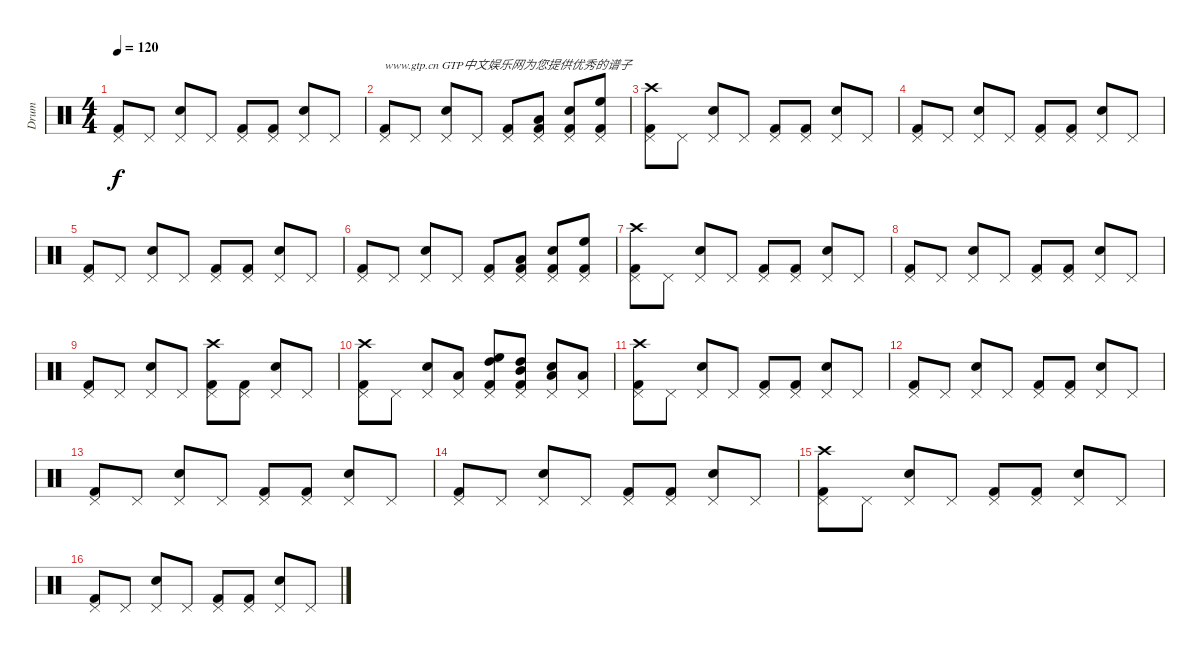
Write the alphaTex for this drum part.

\track ("Drum" "Drum") {instrument percussion}
\staff {score}
\articulation defaults
\ts (4 4)
\tempo 120
\clef neutral
\ks c
("Pedal Hi-Hat (hit)" "Kick (hit) 2").8{dy f} "Pedal Hi-Hat (hit)".8 ("Snare (hit) 2" "Pedal Hi-Hat (hit)").8 "Pedal Hi-Hat (hit)".8 ("Pedal Hi-Hat (hit)" "Kick (hit) 2").8 ("Pedal Hi-Hat (hit)" "Kick (hit) 2").8 ("Snare (hit) 2" "Pedal Hi-Hat (hit)").8 "Pedal Hi-Hat (hit)".8 |
("Pedal Hi-Hat (hit)" "Kick (hit) 2").8{txt "www.gtp.cn GTP中文娱乐网为您提供优秀的谱子"} "Pedal Hi-Hat (hit)".8 ("Snare (hit) 2" "Pedal Hi-Hat (hit)").8 "Pedal Hi-Hat (hit)".8 ("Pedal Hi-Hat (hit)" "Kick (hit) 2").8 ("Pedal Hi-Hat (hit)" "Kick (hit) 2" "Low Tom (hit)").8 ("Snare (hit) 2" "Pedal Hi-Hat (hit)" "Kick (hit) 2").8 ("Pedal Hi-Hat (hit)" "Kick (hit) 2" "High Floor Tom (hit)").8 |
("Crash high (hit)" "Pedal Hi-Hat (hit)" "Kick (hit) 2").8 "Pedal Hi-Hat (hit)".8 ("Snare (hit) 2" "Pedal Hi-Hat (hit)").8 "Pedal Hi-Hat (hit)".8 ("Pedal Hi-Hat (hit)" "Kick (hit) 2").8 ("Pedal Hi-Hat (hit)" "Kick (hit) 2").8 ("Snare (hit) 2" "Pedal Hi-Hat (hit)").8 "Pedal Hi-Hat (hit)".8 |
("Pedal Hi-Hat (hit)" "Kick (hit) 2").8 "Pedal Hi-Hat (hit)".8 ("Snare (hit) 2" "Pedal Hi-Hat (hit)").8 "Pedal Hi-Hat (hit)".8 ("Pedal Hi-Hat (hit)" "Kick (hit) 2").8 ("Pedal Hi-Hat (hit)" "Kick (hit) 2").8 ("Snare (hit) 2" "Pedal Hi-Hat (hit)").8 "Pedal Hi-Hat (hit)".8 |
("Pedal Hi-Hat (hit)" "Kick (hit) 2").8 "Pedal Hi-Hat (hit)".8 ("Snare (hit) 2" "Pedal Hi-Hat (hit)").8 "Pedal Hi-Hat (hit)".8 ("Pedal Hi-Hat (hit)" "Kick (hit) 2").8 ("Pedal Hi-Hat (hit)" "Kick (hit) 2").8 ("Snare (hit) 2" "Pedal Hi-Hat (hit)").8 "Pedal Hi-Hat (hit)".8 |
("Pedal Hi-Hat (hit)" "Kick (hit) 2").8 "Pedal Hi-Hat (hit)".8 ("Snare (hit) 2" "Pedal Hi-Hat (hit)").8 "Pedal Hi-Hat (hit)".8 ("Pedal Hi-Hat (hit)" "Kick (hit) 2").8 ("Pedal Hi-Hat (hit)" "Kick (hit) 2" "Low Tom (hit)").8 ("Snare (hit) 2" "Pedal Hi-Hat (hit)" "Kick (hit) 2").8 ("Pedal Hi-Hat (hit)" "Kick (hit) 2" "High Floor Tom (hit)").8 |
("Crash high (hit)" "Pedal Hi-Hat (hit)" "Kick (hit) 2").8 "Pedal Hi-Hat (hit)".8 ("Snare (hit) 2" "Pedal Hi-Hat (hit)").8 "Pedal Hi-Hat (hit)".8 ("Pedal Hi-Hat (hit)" "Kick (hit) 2").8 ("Pedal Hi-Hat (hit)" "Kick (hit) 2").8 ("Snare (hit) 2" "Pedal Hi-Hat (hit)").8 "Pedal Hi-Hat (hit)".8 |
("Pedal Hi-Hat (hit)" "Kick (hit) 2").8 "Pedal Hi-Hat (hit)".8 ("Snare (hit) 2" "Pedal Hi-Hat (hit)").8 "Pedal Hi-Hat (hit)".8 ("Pedal Hi-Hat (hit)" "Kick (hit) 2").8 ("Pedal Hi-Hat (hit)" "Kick (hit) 2").8 ("Snare (hit) 2" "Pedal Hi-Hat (hit)").8 "Pedal Hi-Hat (hit)".8 |
("Pedal Hi-Hat (hit)" "Kick (hit) 2").8 "Pedal Hi-Hat (hit)".8 ("Snare (hit) 2" "Pedal Hi-Hat (hit)").8 "Pedal Hi-Hat (hit)".8 ("Crash high (hit)" "Pedal Hi-Hat (hit)" "Kick (hit) 2").8 ("Pedal Hi-Hat (hit)" "Kick (hit) 2").8 ("Snare (hit) 2" "Pedal Hi-Hat (hit)").8 "Pedal Hi-Hat (hit)".8 |
("Crash high (hit)" "Pedal Hi-Hat (hit)" "Kick (hit) 2").8 "Pedal Hi-Hat (hit)".8 ("Snare (hit) 2" "Pedal Hi-Hat (hit)").8 ("Pedal Hi-Hat (hit)" "Low Floor Tom (hit)").8 ("High Floor Tom (hit)" "Pedal Hi-Hat (hit)" "Kick (hit) 2" "High Tom (hit)").8 ("High Tom (hit)" "Pedal Hi-Hat (hit)" "Kick (hit) 2" "Mid Tom (hit)").8 ("Snare (hit) 2" "Pedal Hi-Hat (hit)" "Low Tom (hit)").8 ("Pedal Hi-Hat (hit)" "Low Floor Tom (hit)").8 |
("Crash high (hit)" "Pedal Hi-Hat (hit)" "Kick (hit) 2").8 "Pedal Hi-Hat (hit)".8 ("Snare (hit) 2" "Pedal Hi-Hat (hit)").8 "Pedal Hi-Hat (hit)".8 ("Pedal Hi-Hat (hit)" "Kick (hit) 2").8 ("Pedal Hi-Hat (hit)" "Kick (hit) 2").8 ("Snare (hit) 2" "Pedal Hi-Hat (hit)").8 "Pedal Hi-Hat (hit)".8 |
("Pedal Hi-Hat (hit)" "Kick (hit) 2").8 "Pedal Hi-Hat (hit)".8 ("Snare (hit) 2" "Pedal Hi-Hat (hit)").8 "Pedal Hi-Hat (hit)".8 ("Pedal Hi-Hat (hit)" "Kick (hit) 2").8 ("Pedal Hi-Hat (hit)" "Kick (hit) 2").8 ("Snare (hit) 2" "Pedal Hi-Hat (hit)").8 "Pedal Hi-Hat (hit)".8 |
("Pedal Hi-Hat (hit)" "Kick (hit) 2").8 "Pedal Hi-Hat (hit)".8 ("Snare (hit) 2" "Pedal Hi-Hat (hit)").8 "Pedal Hi-Hat (hit)".8 ("Pedal Hi-Hat (hit)" "Kick (hit) 2").8 ("Pedal Hi-Hat (hit)" "Kick (hit) 2").8 ("Snare (hit) 2" "Pedal Hi-Hat (hit)").8 "Pedal Hi-Hat (hit)".8 |
("Pedal Hi-Hat (hit)" "Kick (hit) 2").8 "Pedal Hi-Hat (hit)".8 ("Snare (hit) 2" "Pedal Hi-Hat (hit)").8 "Pedal Hi-Hat (hit)".8 ("Pedal Hi-Hat (hit)" "Kick (hit) 2").8 ("Pedal Hi-Hat (hit)" "Kick (hit) 2").8 ("Snare (hit) 2" "Pedal Hi-Hat (hit)").8 "Pedal Hi-Hat (hit)".8 |
("Crash high (hit)" "Pedal Hi-Hat (hit)" "Kick (hit) 2").8 "Pedal Hi-Hat (hit)".8 ("Snare (hit) 2" "Pedal Hi-Hat (hit)").8 "Pedal Hi-Hat (hit)".8 ("Pedal Hi-Hat (hit)" "Kick (hit) 2").8 ("Pedal Hi-Hat (hit)" "Kick (hit) 2").8 ("Snare (hit) 2" "Pedal Hi-Hat (hit)").8 "Pedal Hi-Hat (hit)".8 |
("Pedal Hi-Hat (hit)" "Kick (hit) 2").8 "Pedal Hi-Hat (hit)".8 ("Snare (hit) 2" "Pedal Hi-Hat (hit)").8 "Pedal Hi-Hat (hit)".8 ("Pedal Hi-Hat (hit)" "Kick (hit) 2").8 ("Pedal Hi-Hat (hit)" "Kick (hit) 2").8 ("Snare (hit) 2" "Pedal Hi-Hat (hit)").8 "Pedal Hi-Hat (hit)".8
